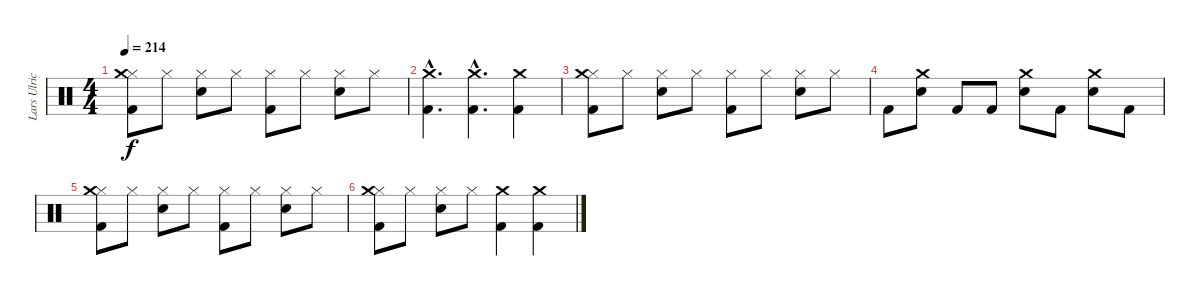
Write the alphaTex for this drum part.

\track ("Lars Ulrich" "Lars Ulric") {instrument percussion}
\staff {score}
\articulation defaults
\ts (4 4)
\tempo 214
\clef neutral
\ks c
("Hi-Hat (closed)" "Kick (hit) 2" "Crash medium (hit)").8{dy f} "Hi-Hat (closed)".8 ("Hi-Hat (closed)" "Snare (hit) 2").8 "Hi-Hat (closed)".8 ("Hi-Hat (closed)" "Kick (hit) 2").8 "Hi-Hat (closed)".8 ("Hi-Hat (closed)" "Snare (hit) 2").8 "Hi-Hat (closed)".8 |
("Kick (hit) 2"{hac} "Crash medium (hit)"{hac}).4{d} ("Crash medium (hit)"{hac} "Kick (hit) 2"{hac}).4{d} ("Kick (hit) 2" "Crash medium (hit)").4 |
("Hi-Hat (closed)" "Kick (hit) 2" "Crash medium (hit)").8 "Hi-Hat (closed)".8 ("Hi-Hat (closed)" "Snare (hit) 2").8 "Hi-Hat (closed)".8 ("Hi-Hat (closed)" "Kick (hit) 2").8 "Hi-Hat (closed)".8 ("Hi-Hat (closed)" "Snare (hit) 2").8 "Hi-Hat (closed)".8 |
"Kick (hit) 2".8 ("Snare (hit) 2" "Crash medium (hit)").8 "Kick (hit) 2".8 "Kick (hit) 2".8 ("Snare (hit) 2" "Crash medium (hit)").8 "Kick (hit) 2".8 ("Snare (hit) 2" "Crash medium (hit)").8 "Kick (hit) 2".8 |
("Hi-Hat (closed)" "Kick (hit) 2" "Crash medium (hit)").8 "Hi-Hat (closed)".8 ("Hi-Hat (closed)" "Snare (hit) 2").8 "Hi-Hat (closed)".8 ("Hi-Hat (closed)" "Kick (hit) 2").8 "Hi-Hat (closed)".8 ("Hi-Hat (closed)" "Snare (hit) 2").8 "Hi-Hat (closed)".8 |
("Hi-Hat (closed)" "Kick (hit) 2" "Crash medium (hit)").8 "Hi-Hat (closed)".8 ("Hi-Hat (closed)" "Snare (hit) 2").8 "Hi-Hat (closed)".8 ("Kick (hit) 2" "Crash medium (hit)").4 ("Kick (hit) 2" "Crash medium (hit)").4
